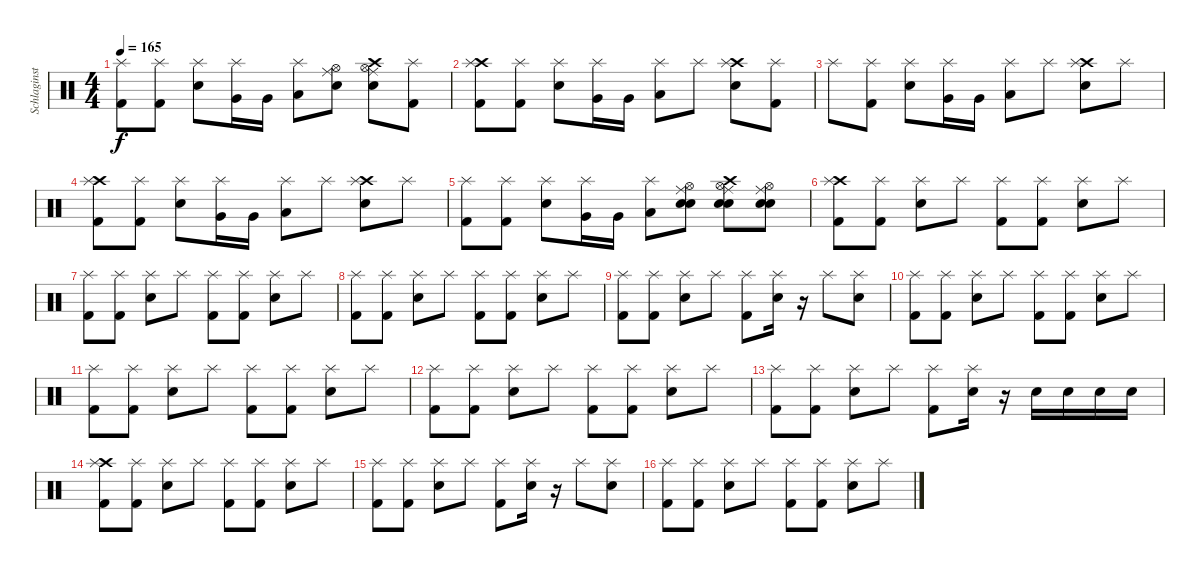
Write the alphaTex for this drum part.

\track ("Schlaginstrumente - Auswahl" "Schlaginst") {instrument percussion}
\staff {score}
\articulation defaults
\ts (4 4)
\tempo 165
\clef neutral
\ks c
("Splash (hit)" "Kick (hit) 2").8{dy f} ("Splash (hit)" "Kick (hit) 2").8 ("Splash (hit)" "Electric Snare (hit)").8 ("Very Low Tom (hit)" "Splash (hit)").16 "Very Low Tom (hit)".16 ("Low Floor Tom (hit)" "Splash (hit)").8 ("Ride (middle)" "Hi-Hat (open)" "Electric Snare (hit)").8 ("Crash high (hit)" "Ride (middle)" "Hi-Hat (open)" "Electric Snare (hit)").8 ("Splash (hit)" "Kick (hit) 2").8 |
("Crash high (hit)" "Splash (hit)" "Kick (hit) 2").8 ("Splash (hit)" "Kick (hit) 2").8 ("Splash (hit)" "Electric Snare (hit)").8 ("Very Low Tom (hit)" "Splash (hit)").16 "Very Low Tom (hit)".16 ("Low Floor Tom (hit)" "Splash (hit)").8 "Splash (hit)".8 ("Crash high (hit)" "Splash (hit)" "Electric Snare (hit)").8 ("Splash (hit)" "Kick (hit) 2").8 |
"Splash (hit)".8 ("Splash (hit)" "Kick (hit) 2").8 ("Splash (hit)" "Electric Snare (hit)").8 ("Very Low Tom (hit)" "Splash (hit)").16 "Very Low Tom (hit)".16 ("Low Floor Tom (hit)" "Splash (hit)").8 "Splash (hit)".8 ("Crash high (hit)" "Splash (hit)" "Electric Snare (hit)").8 "Splash (hit)".8 |
("Crash high (hit)" "Splash (hit)" "Kick (hit) 2").8 ("Splash (hit)" "Kick (hit) 2").8 ("Splash (hit)" "Electric Snare (hit)").8 ("Very Low Tom (hit)" "Splash (hit)").16 "Very Low Tom (hit)".16 ("Low Floor Tom (hit)" "Splash (hit)").8 "Splash (hit)".8 ("Crash high (hit)" "Splash (hit)" "Electric Snare (hit)").8 "Splash (hit)".8 |
("Splash (hit)" "Kick (hit) 2").8 ("Splash (hit)" "Kick (hit) 2").8 ("Splash (hit)" "Electric Snare (hit)").8 ("Very Low Tom (hit)" "Splash (hit)").16 "Very Low Tom (hit)".16 ("Low Floor Tom (hit)" "Splash (hit)").8 ("Ride (middle)" "Hand Clap (hit)" "Hi-Hat (open)" "Electric Snare (hit)").8 ("Crash high (hit)" "Ride (middle)" "Hand Clap (hit)" "Hi-Hat (open)" "Electric Snare (hit)").8 ("Ride (middle)" "Hand Clap (hit)" "Hi-Hat (open)" "Electric Snare (hit)").8 |
("Crash high (hit)" "Splash (hit)" "Kick (hit) 2").8 ("Splash (hit)" "Kick (hit) 2").8 ("Splash (hit)" "Electric Snare (hit)").8 "Splash (hit)".8 ("Splash (hit)" "Kick (hit) 2").8 ("Splash (hit)" "Kick (hit) 2").8 ("Splash (hit)" "Electric Snare (hit)").8 "Splash (hit)".8 |
("Splash (hit)" "Kick (hit) 2").8 ("Splash (hit)" "Kick (hit) 2").8 ("Splash (hit)" "Electric Snare (hit)").8 "Splash (hit)".8 ("Splash (hit)" "Kick (hit) 2").8 ("Splash (hit)" "Kick (hit) 2").8 ("Splash (hit)" "Electric Snare (hit)").8 "Splash (hit)".8 |
("Splash (hit)" "Kick (hit) 2").8 ("Splash (hit)" "Kick (hit) 2").8 ("Splash (hit)" "Electric Snare (hit)").8 "Splash (hit)".8 ("Splash (hit)" "Kick (hit) 2").8 ("Splash (hit)" "Kick (hit) 2").8 ("Splash (hit)" "Electric Snare (hit)").8 "Splash (hit)".8 |
("Splash (hit)" "Kick (hit) 2").8 ("Splash (hit)" "Kick (hit) 2").8 ("Splash (hit)" "Electric Snare (hit)").8 "Splash (hit)".8 ("Splash (hit)" "Kick (hit) 2").8 ("Splash (hit)" "Electric Snare (hit)").16 r.16 "Splash (hit)".8 ("Splash (hit)" "Electric Snare (hit)").8 |
("Splash (hit)" "Kick (hit) 2").8 ("Splash (hit)" "Kick (hit) 2").8 ("Splash (hit)" "Electric Snare (hit)").8 "Splash (hit)".8 ("Splash (hit)" "Kick (hit) 2").8 ("Splash (hit)" "Kick (hit) 2").8 ("Splash (hit)" "Electric Snare (hit)").8 "Splash (hit)".8 |
("Splash (hit)" "Kick (hit) 2").8 ("Splash (hit)" "Kick (hit) 2").8 ("Splash (hit)" "Electric Snare (hit)").8 "Splash (hit)".8 ("Splash (hit)" "Kick (hit) 2").8 ("Splash (hit)" "Kick (hit) 2").8 ("Splash (hit)" "Electric Snare (hit)").8 "Splash (hit)".8 |
("Splash (hit)" "Kick (hit) 2").8 ("Splash (hit)" "Kick (hit) 2").8 ("Splash (hit)" "Electric Snare (hit)").8 "Splash (hit)".8 ("Splash (hit)" "Kick (hit) 2").8 ("Splash (hit)" "Kick (hit) 2").8 ("Splash (hit)" "Electric Snare (hit)").8 "Splash (hit)".8 |
("Splash (hit)" "Kick (hit) 2").8 ("Splash (hit)" "Kick (hit) 2").8 ("Splash (hit)" "Electric Snare (hit)").8 "Splash (hit)".8 ("Splash (hit)" "Kick (hit) 2").8 ("Splash (hit)" "Electric Snare (hit)").16 r.16 "Electric Snare (hit)".16 "Electric Snare (hit)".16 "Electric Snare (hit)".16 "Electric Snare (hit)".16 |
("Crash high (hit)" "Splash (hit)" "Kick (hit) 2").8 ("Splash (hit)" "Kick (hit) 2").8 ("Splash (hit)" "Electric Snare (hit)").8 "Splash (hit)".8 ("Splash (hit)" "Kick (hit) 2").8 ("Splash (hit)" "Kick (hit) 2").8 ("Splash (hit)" "Electric Snare (hit)").8 "Splash (hit)".8 |
("Splash (hit)" "Kick (hit) 2").8 ("Splash (hit)" "Kick (hit) 2").8 ("Splash (hit)" "Electric Snare (hit)").8 "Splash (hit)".8 ("Splash (hit)" "Kick (hit) 2").8 ("Splash (hit)" "Electric Snare (hit)").16 r.16 "Splash (hit)".8 ("Splash (hit)" "Electric Snare (hit)").8 |
("Splash (hit)" "Kick (hit) 2").8 ("Splash (hit)" "Kick (hit) 2").8 ("Splash (hit)" "Electric Snare (hit)").8 "Splash (hit)".8 ("Splash (hit)" "Kick (hit) 2").8 ("Splash (hit)" "Kick (hit) 2").8 ("Splash (hit)" "Electric Snare (hit)").8 "Splash (hit)".8
